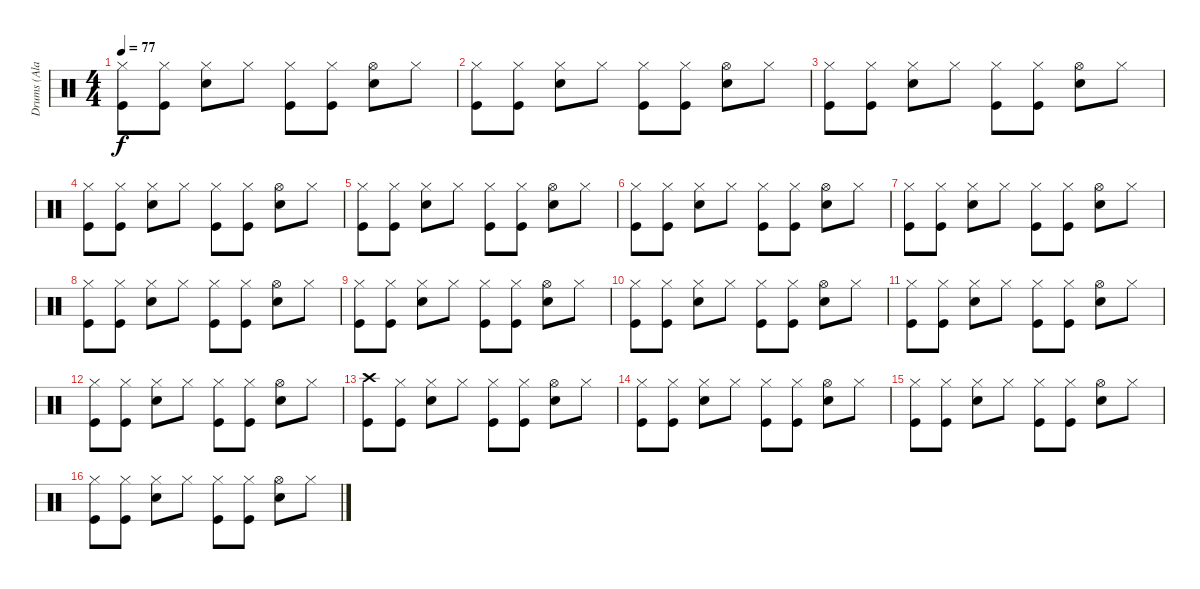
\track ("Drums (Alan White)" "Drums (Ala") {instrument percussion}
\staff {score}
\articulation defaults
\ts (4 4)
\tempo 77
\clef neutral
\ks c
("Hi-Hat (closed)" "Kick (hit)").8{dy f} ("Hi-Hat (closed)" "Kick (hit)").8 ("Hi-Hat (closed)" "Snare (hit) 2").8 "Hi-Hat (closed)".8 ("Hi-Hat (closed)" "Kick (hit)").8 ("Hi-Hat (closed)" "Kick (hit)").8 ("Hi-Hat (open)" "Snare (hit) 2").8 "Hi-Hat (closed)".8 |
("Hi-Hat (closed)" "Kick (hit)").8 ("Hi-Hat (closed)" "Kick (hit)").8 ("Hi-Hat (closed)" "Snare (hit) 2").8 "Hi-Hat (closed)".8 ("Hi-Hat (closed)" "Kick (hit)").8 ("Hi-Hat (closed)" "Kick (hit)").8 ("Hi-Hat (open)" "Snare (hit) 2").8 "Hi-Hat (closed)".8 |
("Hi-Hat (closed)" "Kick (hit)").8 ("Hi-Hat (closed)" "Kick (hit)").8 ("Hi-Hat (closed)" "Snare (hit) 2").8 "Hi-Hat (closed)".8 ("Hi-Hat (closed)" "Kick (hit)").8 ("Hi-Hat (closed)" "Kick (hit)").8 ("Hi-Hat (open)" "Snare (hit) 2").8 "Hi-Hat (closed)".8 |
("Hi-Hat (closed)" "Kick (hit)").8 ("Hi-Hat (closed)" "Kick (hit)").8 ("Hi-Hat (closed)" "Snare (hit) 2").8 "Hi-Hat (closed)".8 ("Hi-Hat (closed)" "Kick (hit)").8 ("Hi-Hat (closed)" "Kick (hit)").8 ("Hi-Hat (open)" "Snare (hit) 2").8 "Hi-Hat (closed)".8 |
("Hi-Hat (closed)" "Kick (hit)").8 ("Hi-Hat (closed)" "Kick (hit)").8 ("Hi-Hat (closed)" "Snare (hit) 2").8 "Hi-Hat (closed)".8 ("Hi-Hat (closed)" "Kick (hit)").8 ("Hi-Hat (closed)" "Kick (hit)").8 ("Hi-Hat (open)" "Snare (hit) 2").8 "Hi-Hat (closed)".8 |
("Hi-Hat (closed)" "Kick (hit)").8 ("Hi-Hat (closed)" "Kick (hit)").8 ("Hi-Hat (closed)" "Snare (hit) 2").8 "Hi-Hat (closed)".8 ("Hi-Hat (closed)" "Kick (hit)").8 ("Hi-Hat (closed)" "Kick (hit)").8 ("Hi-Hat (open)" "Snare (hit) 2").8 "Hi-Hat (closed)".8 |
("Hi-Hat (closed)" "Kick (hit)").8 ("Hi-Hat (closed)" "Kick (hit)").8 ("Hi-Hat (closed)" "Snare (hit) 2").8 "Hi-Hat (closed)".8 ("Hi-Hat (closed)" "Kick (hit)").8 ("Hi-Hat (closed)" "Kick (hit)").8 ("Hi-Hat (open)" "Snare (hit) 2").8 "Hi-Hat (closed)".8 |
("Hi-Hat (closed)" "Kick (hit)").8 ("Hi-Hat (closed)" "Kick (hit)").8 ("Hi-Hat (closed)" "Snare (hit) 2").8 "Hi-Hat (closed)".8 ("Hi-Hat (closed)" "Kick (hit)").8 ("Hi-Hat (closed)" "Kick (hit)").8 ("Hi-Hat (open)" "Snare (hit) 2").8 "Hi-Hat (closed)".8 |
("Hi-Hat (closed)" "Kick (hit)").8 ("Hi-Hat (closed)" "Kick (hit)").8 ("Hi-Hat (closed)" "Snare (hit) 2").8 "Hi-Hat (closed)".8 ("Hi-Hat (closed)" "Kick (hit)").8 ("Hi-Hat (closed)" "Kick (hit)").8 ("Hi-Hat (open)" "Snare (hit) 2").8 "Hi-Hat (closed)".8 |
("Hi-Hat (closed)" "Kick (hit)").8 ("Hi-Hat (closed)" "Kick (hit)").8 ("Hi-Hat (closed)" "Snare (hit) 2").8 "Hi-Hat (closed)".8 ("Hi-Hat (closed)" "Kick (hit)").8 ("Hi-Hat (closed)" "Kick (hit)").8 ("Hi-Hat (open)" "Snare (hit) 2").8 "Hi-Hat (closed)".8 |
("Hi-Hat (closed)" "Kick (hit)").8 ("Hi-Hat (closed)" "Kick (hit)").8 ("Hi-Hat (closed)" "Snare (hit) 2").8 "Hi-Hat (closed)".8 ("Hi-Hat (closed)" "Kick (hit)").8 ("Hi-Hat (closed)" "Kick (hit)").8 ("Hi-Hat (open)" "Snare (hit) 2").8 "Hi-Hat (closed)".8 |
("Hi-Hat (closed)" "Kick (hit)").8 ("Hi-Hat (closed)" "Kick (hit)").8 ("Hi-Hat (closed)" "Snare (hit) 2").8 "Hi-Hat (closed)".8 ("Hi-Hat (closed)" "Kick (hit)").8 ("Hi-Hat (closed)" "Kick (hit)").8 ("Hi-Hat (open)" "Snare (hit) 2").8 "Hi-Hat (closed)".8 |
("Crash high (hit)" "Kick (hit)").8 ("Hi-Hat (closed)" "Kick (hit)").8 ("Hi-Hat (closed)" "Snare (hit) 2").8 "Hi-Hat (closed)".8 ("Hi-Hat (closed)" "Kick (hit)").8 ("Hi-Hat (closed)" "Kick (hit)").8 ("Hi-Hat (open)" "Snare (hit) 2").8 "Hi-Hat (closed)".8 |
("Hi-Hat (closed)" "Kick (hit)").8 ("Hi-Hat (closed)" "Kick (hit)").8 ("Hi-Hat (closed)" "Snare (hit) 2").8 "Hi-Hat (closed)".8 ("Hi-Hat (closed)" "Kick (hit)").8 ("Hi-Hat (closed)" "Kick (hit)").8 ("Hi-Hat (open)" "Snare (hit) 2").8 "Hi-Hat (closed)".8 |
("Hi-Hat (closed)" "Kick (hit)").8 ("Hi-Hat (closed)" "Kick (hit)").8 ("Hi-Hat (closed)" "Snare (hit) 2").8 "Hi-Hat (closed)".8 ("Hi-Hat (closed)" "Kick (hit)").8 ("Hi-Hat (closed)" "Kick (hit)").8 ("Hi-Hat (open)" "Snare (hit) 2").8 "Hi-Hat (closed)".8 |
("Hi-Hat (closed)" "Kick (hit)").8 ("Hi-Hat (closed)" "Kick (hit)").8 ("Hi-Hat (closed)" "Snare (hit) 2").8 "Hi-Hat (closed)".8 ("Hi-Hat (closed)" "Kick (hit)").8 ("Hi-Hat (closed)" "Kick (hit)").8 ("Hi-Hat (open)" "Snare (hit) 2").8 "Hi-Hat (closed)".8
